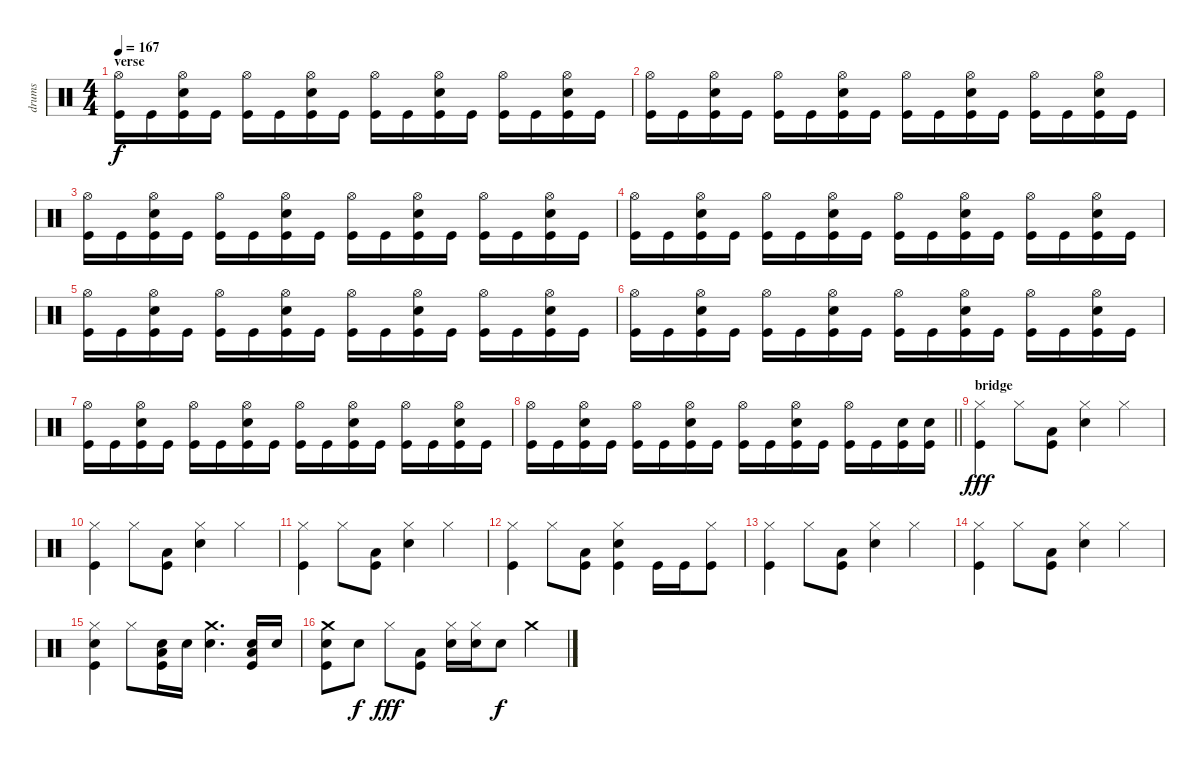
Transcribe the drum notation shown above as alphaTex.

\track ("drums" "drums") {instrument percussion}
\staff {score}
\articulation defaults
\ts (4 4)
\section ("" "verse")
\tempo 167
\clef neutral
\ks c
("Hi-Hat (open)" "Kick (hit)").16{dy f} "Kick (hit)".16 ("Snare (hit) 2" "Hi-Hat (open)" "Kick (hit)").16 "Kick (hit)".16 ("Hi-Hat (open)" "Kick (hit)").16 "Kick (hit)".16 ("Snare (hit) 2" "Hi-Hat (open)" "Kick (hit)").16 "Kick (hit)".16 ("Hi-Hat (open)" "Kick (hit)").16 "Kick (hit)".16 ("Snare (hit) 2" "Hi-Hat (open)" "Kick (hit)").16 "Kick (hit)".16 ("Hi-Hat (open)" "Kick (hit)").16 "Kick (hit)".16 ("Snare (hit) 2" "Hi-Hat (open)" "Kick (hit)").16 "Kick (hit)".16 |
("Hi-Hat (open)" "Kick (hit)").16 "Kick (hit)".16 ("Snare (hit) 2" "Hi-Hat (open)" "Kick (hit)").16 "Kick (hit)".16 ("Hi-Hat (open)" "Kick (hit)").16 "Kick (hit)".16 ("Snare (hit) 2" "Hi-Hat (open)" "Kick (hit)").16 "Kick (hit)".16 ("Hi-Hat (open)" "Kick (hit)").16 "Kick (hit)".16 ("Snare (hit) 2" "Hi-Hat (open)" "Kick (hit)").16 "Kick (hit)".16 ("Hi-Hat (open)" "Kick (hit)").16 "Kick (hit)".16 ("Snare (hit) 2" "Hi-Hat (open)" "Kick (hit)").16 "Kick (hit)".16 |
("Hi-Hat (open)" "Kick (hit)").16 "Kick (hit)".16 ("Snare (hit) 2" "Hi-Hat (open)" "Kick (hit)").16 "Kick (hit)".16 ("Hi-Hat (open)" "Kick (hit)").16 "Kick (hit)".16 ("Snare (hit) 2" "Hi-Hat (open)" "Kick (hit)").16 "Kick (hit)".16 ("Hi-Hat (open)" "Kick (hit)").16 "Kick (hit)".16 ("Snare (hit) 2" "Hi-Hat (open)" "Kick (hit)").16 "Kick (hit)".16 ("Hi-Hat (open)" "Kick (hit)").16 "Kick (hit)".16 ("Snare (hit) 2" "Hi-Hat (open)" "Kick (hit)").16 "Kick (hit)".16 |
("Hi-Hat (open)" "Kick (hit)").16 "Kick (hit)".16 ("Snare (hit) 2" "Hi-Hat (open)" "Kick (hit)").16 "Kick (hit)".16 ("Hi-Hat (open)" "Kick (hit)").16 "Kick (hit)".16 ("Snare (hit) 2" "Hi-Hat (open)" "Kick (hit)").16 "Kick (hit)".16 ("Hi-Hat (open)" "Kick (hit)").16 "Kick (hit)".16 ("Snare (hit) 2" "Hi-Hat (open)" "Kick (hit)").16 "Kick (hit)".16 ("Hi-Hat (open)" "Kick (hit)").16 "Kick (hit)".16 ("Snare (hit) 2" "Hi-Hat (open)" "Kick (hit)").16 "Kick (hit)".16 |
("Hi-Hat (open)" "Kick (hit)").16 "Kick (hit)".16 ("Snare (hit) 2" "Hi-Hat (open)" "Kick (hit)").16 "Kick (hit)".16 ("Hi-Hat (open)" "Kick (hit)").16 "Kick (hit)".16 ("Snare (hit) 2" "Hi-Hat (open)" "Kick (hit)").16 "Kick (hit)".16 ("Hi-Hat (open)" "Kick (hit)").16 "Kick (hit)".16 ("Snare (hit) 2" "Hi-Hat (open)" "Kick (hit)").16 "Kick (hit)".16 ("Hi-Hat (open)" "Kick (hit)").16 "Kick (hit)".16 ("Snare (hit) 2" "Hi-Hat (open)" "Kick (hit)").16 "Kick (hit)".16 |
("Hi-Hat (open)" "Kick (hit)").16 "Kick (hit)".16 ("Snare (hit) 2" "Hi-Hat (open)" "Kick (hit)").16 "Kick (hit)".16 ("Hi-Hat (open)" "Kick (hit)").16 "Kick (hit)".16 ("Snare (hit) 2" "Hi-Hat (open)" "Kick (hit)").16 "Kick (hit)".16 ("Hi-Hat (open)" "Kick (hit)").16 "Kick (hit)".16 ("Snare (hit) 2" "Hi-Hat (open)" "Kick (hit)").16 "Kick (hit)".16 ("Hi-Hat (open)" "Kick (hit)").16 "Kick (hit)".16 ("Snare (hit) 2" "Hi-Hat (open)" "Kick (hit)").16 "Kick (hit)".16 |
("Hi-Hat (open)" "Kick (hit)").16 "Kick (hit)".16 ("Snare (hit) 2" "Hi-Hat (open)" "Kick (hit)").16 "Kick (hit)".16 ("Hi-Hat (open)" "Kick (hit)").16 "Kick (hit)".16 ("Snare (hit) 2" "Hi-Hat (open)" "Kick (hit)").16 "Kick (hit)".16 ("Hi-Hat (open)" "Kick (hit)").16 "Kick (hit)".16 ("Snare (hit) 2" "Hi-Hat (open)" "Kick (hit)").16 "Kick (hit)".16 ("Hi-Hat (open)" "Kick (hit)").16 "Kick (hit)".16 ("Snare (hit) 2" "Hi-Hat (open)" "Kick (hit)").16 "Kick (hit)".16 |
\barLineRight lightlight
("Hi-Hat (open)" "Kick (hit)").16 "Kick (hit)".16 ("Snare (hit) 2" "Hi-Hat (open)" "Kick (hit)").16 "Kick (hit)".16 ("Hi-Hat (open)" "Kick (hit)").16 "Kick (hit)".16 ("Snare (hit) 2" "Hi-Hat (open)" "Kick (hit)").16 "Kick (hit)".16 ("Hi-Hat (open)" "Kick (hit)").16 "Kick (hit)".16 ("Snare (hit) 2" "Hi-Hat (open)" "Kick (hit)").16 "Kick (hit)".16 ("Hi-Hat (open)" "Kick (hit)").16 "Kick (hit)".16 ("Snare (hit) 2" "Kick (hit)").16 ("Snare (hit) 2" "Kick (hit)").16 |
\section ("" "bridge")
("Hi-Hat (closed)" "Kick (hit)").4{dy fff} "Hi-Hat (closed)".8 ("Low Tom (hit)" "Kick (hit)").8 ("Snare (hit) 2" "Hi-Hat (closed)").4 "Hi-Hat (closed)".4 |
("Hi-Hat (closed)" "Kick (hit)").4 "Hi-Hat (closed)".8 ("Low Tom (hit)" "Kick (hit)").8 ("Snare (hit) 2" "Hi-Hat (closed)").4 "Hi-Hat (closed)".4 |
("Hi-Hat (closed)" "Kick (hit)").4 "Hi-Hat (closed)".8 ("Low Tom (hit)" "Kick (hit)").8 ("Snare (hit) 2" "Hi-Hat (closed)").4 "Hi-Hat (closed)".4 |
("Hi-Hat (closed)" "Kick (hit)").4 "Hi-Hat (closed)".8 ("Low Tom (hit)" "Kick (hit)").8 ("Snare (hit) 2" "Hi-Hat (closed)" "Kick (hit)").4 "Kick (hit)".16 "Kick (hit)".16 ("Hi-Hat (closed)" "Kick (hit)").8 |
("Hi-Hat (closed)" "Kick (hit)").4 "Hi-Hat (closed)".8 ("Low Tom (hit)" "Kick (hit)").8 ("Snare (hit) 2" "Hi-Hat (closed)").4 "Hi-Hat (closed)".4 |
("Hi-Hat (closed)" "Kick (hit)").4 "Hi-Hat (closed)".8 ("Low Tom (hit)" "Kick (hit)").8 ("Snare (hit) 2" "Hi-Hat (closed)").4 "Hi-Hat (closed)".4 |
("Snare (hit) 2" "Hi-Hat (closed)" "Kick (hit)").4 "Hi-Hat (closed)".8 ("Snare (hit) 2" "Low Tom (hit)" "Kick (hit)").16 "Snare (hit) 2".16 ("Snare (hit) 2" "Crash medium (hit)").4{d} ("Snare (hit) 2" "Low Tom (hit)" "Kick (hit)").16 "Snare (hit) 2".16 |
("Snare (hit) 2" "Crash medium (hit)" "Kick (hit)").8 "Snare (hit) 2".8{dy f} "Hi-Hat (closed)".8{dy fff} ("Low Tom (hit)" "Kick (hit)").8 ("Snare (hit) 2" "Hi-Hat (closed)").16 ("Snare (hit) 2" "Hi-Hat (closed)").16 "Snare (hit) 2".8{dy f} "Crash medium (hit)".4
